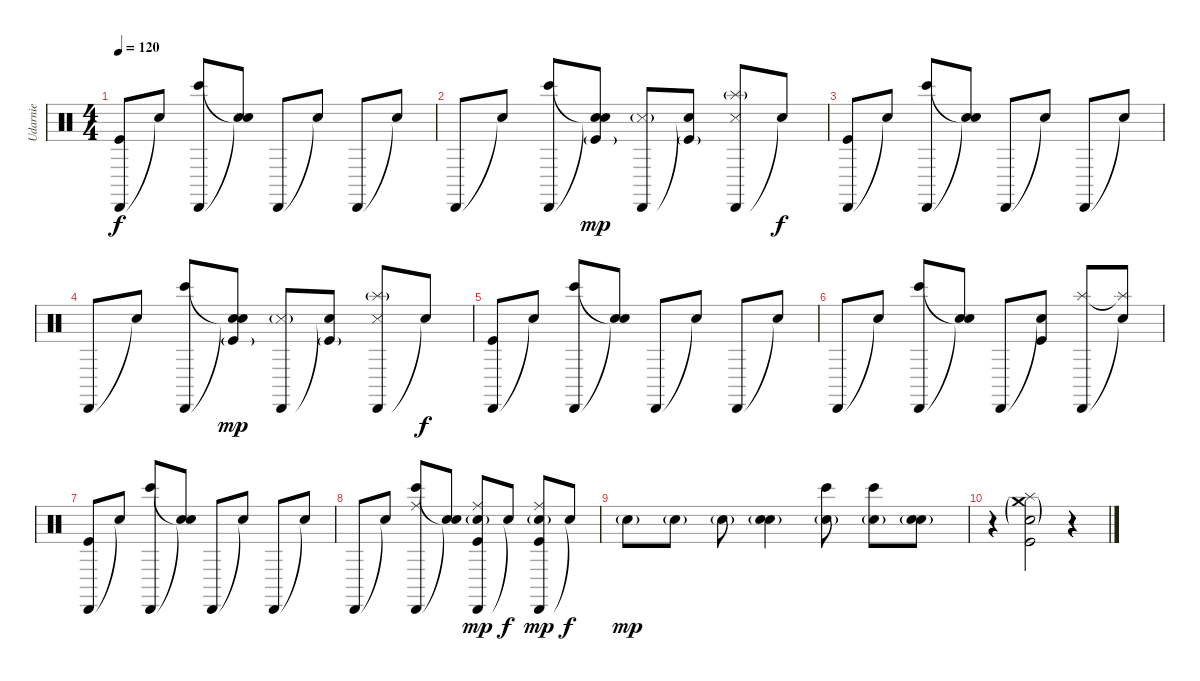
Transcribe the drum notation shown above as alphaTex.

\track ("Udarnie" "Udarnie") {instrument percussion}
\staff {score}
\articulation defaults
\ts (4 4)
\tempo 120
\clef neutral
\ks c
("Cabasa (hit)" "Kick (hit)").8{dy f} "Snare (hit)"{t}.8 ("Cabasa (hit)" "Bongo High (hit)").8 ("Snare (hit)"{t} "Snare (hit)"{t}).8 "Cabasa (hit)".8 "Snare (hit)"{t}.8 "Cabasa (hit)".8 "Snare (hit)"{t}.8 |
"Cabasa (hit)".8 "Snare (hit)"{t}.8 ("Cabasa (hit)" "Bongo High (hit)").8 ("Snare (hit)"{t} "Snare (hit)"{t} "Kick (hit)"{g}).8{dy mp} ("Cabasa (hit)" "Snare (side stick) 3"{g}).8 ("Snare (hit)"{t} "Kick (hit)"{g}).8 ("Cabasa (hit)" "Snare (side stick) 3" "Splash (hit)"{g}).8 "Snare (hit)"{t}.8{dy f} |
("Cabasa (hit)" "Kick (hit)").8 "Snare (hit)"{t}.8 ("Cabasa (hit)" "Bongo High (hit)").8 ("Snare (hit)"{t} "Snare (hit)"{t}).8 "Cabasa (hit)".8 "Snare (hit)"{t}.8 "Cabasa (hit)".8 "Snare (hit)"{t}.8 |
"Cabasa (hit)".8 "Snare (hit)"{t}.8 ("Cabasa (hit)" "Bongo High (hit)").8 ("Snare (hit)"{t} "Snare (hit)"{t} "Kick (hit)"{g}).8{dy mp} ("Cabasa (hit)" "Snare (side stick) 3"{g}).8 ("Snare (hit)"{t} "Kick (hit)"{g}).8 ("Cabasa (hit)" "Snare (side stick) 3" "Splash (hit)"{g}).8 "Snare (hit)"{t}.8{dy f} |
("Cabasa (hit)" "Kick (hit)").8 "Snare (hit)"{t}.8 ("Cabasa (hit)" "Bongo High (hit)").8 ("Snare (hit)"{t} "Snare (hit)"{t}).8 "Cabasa (hit)".8 "Snare (hit)"{t}.8 "Cabasa (hit)".8 "Snare (hit)"{t}.8 |
"Cabasa (hit)".8 "Snare (hit)"{t}.8 ("Cabasa (hit)" "Bongo High (hit)").8 ("Snare (hit)"{t} "Snare (hit)"{t}).8 "Cabasa (hit)".8 ("Snare (hit)"{t} "Kick (hit)").8 ("Cabasa (hit)" "Splash (hit)").8 ("Snare (hit)"{t} "Splash (hit)"{t}).8 |
("Cabasa (hit)" "Kick (hit)").8 "Snare (hit)"{t}.8 ("Cabasa (hit)" "Bongo High (hit)").8 ("Snare (hit)"{t} "Snare (hit)"{t}).8 "Cabasa (hit)".8 "Snare (hit)"{t}.8 "Cabasa (hit)".8 "Snare (hit)"{t}.8 |
"Cabasa (hit)".8 "Snare (hit)"{t}.8 ("Cabasa (hit)" "Bongo High (hit)" "Ride (middle)").8 ("Snare (hit)"{t} "Snare (hit)"{t}).8 ("Cabasa (hit)" "Ride (middle)" "Electric Snare (hit)"{g} "Kick (hit)").8{dy mp} "Snare (hit)"{t}.8{dy f} ("Cabasa (hit)" "Ride (middle)" "Electric Snare (hit)"{g} "Kick (hit)").8{dy mp} "Snare (hit)"{t}.8{dy f} |
"Electric Snare (hit)"{g}.8{dy mp} "Electric Snare (hit)"{g}.8 "Electric Snare (hit)"{g}.8 ("Snare (hit) 2" "Electric Snare (hit)"{g}).4 ("Electric Snare (hit)"{g} "Bongo High (hit)").8 ("Electric Snare (hit)"{g} "Bongo High (hit)").8 ("Snare (hit) 2" "Electric Snare (hit)"{g}).8 |
r.4 ("Splash (hit)" "Electric Snare (hit)"{g} "Kick (hit)" "Crash medium (hit)"{g}).2 r.4
